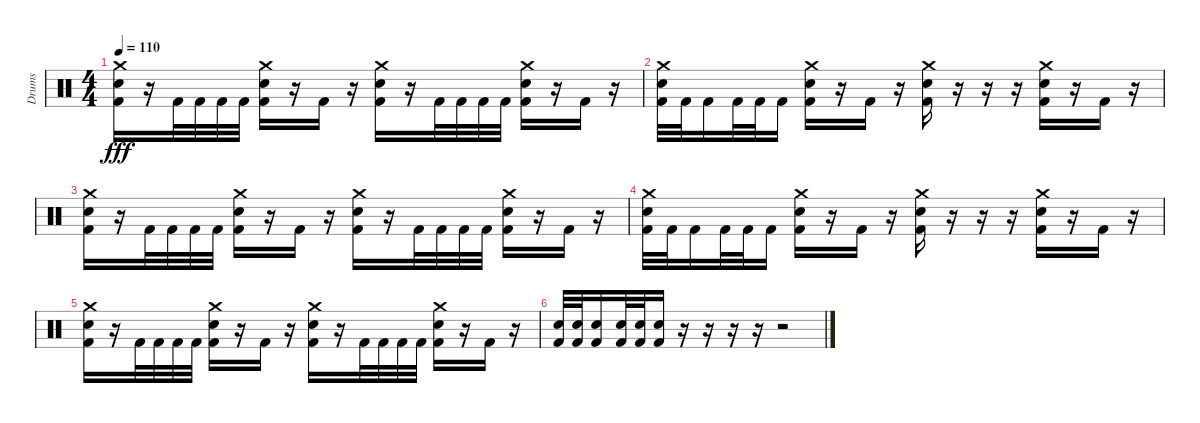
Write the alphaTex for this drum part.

\track ("Drums" "Drums") {instrument percussion}
\staff {score}
\articulation defaults
\ts (4 4)
\tempo 110
\clef neutral
\ks c
("Crash medium (hit)" "Snare (hit) 2" "Kick (hit) 2").16{dy fff} r.16 "Kick (hit) 2".32 "Kick (hit) 2".32 "Kick (hit) 2".32 "Kick (hit) 2".32 ("Crash medium (hit)" "Snare (hit) 2" "Kick (hit) 2").16 r.16 "Kick (hit) 2".16 r.16 ("Crash medium (hit)" "Snare (hit) 2" "Kick (hit) 2").16 r.16 "Kick (hit) 2".32 "Kick (hit) 2".32 "Kick (hit) 2".32 "Kick (hit) 2".32 ("Crash medium (hit)" "Snare (hit) 2" "Kick (hit) 2").16 r.16 "Kick (hit) 2".16 r.16 |
("Crash medium (hit)" "Snare (hit) 2" "Kick (hit) 2").32 "Kick (hit) 2".32 "Kick (hit) 2".16 "Kick (hit) 2".32 "Kick (hit) 2".32 "Kick (hit) 2".16 ("Crash medium (hit)" "Snare (hit) 2" "Kick (hit) 2").16 r.16 "Kick (hit) 2".16 r.16 ("Crash medium (hit)" "Snare (hit) 2" "Kick (hit) 2").16 r.16 r.16 r.16 ("Crash medium (hit)" "Snare (hit) 2" "Kick (hit) 2").16 r.16 "Kick (hit) 2".16 r.16 |
("Crash medium (hit)" "Snare (hit) 2" "Kick (hit) 2").16 r.16 "Kick (hit) 2".32 "Kick (hit) 2".32 "Kick (hit) 2".32 "Kick (hit) 2".32 ("Crash medium (hit)" "Snare (hit) 2" "Kick (hit) 2").16 r.16 "Kick (hit) 2".16 r.16 ("Crash medium (hit)" "Snare (hit) 2" "Kick (hit) 2").16 r.16 "Kick (hit) 2".32 "Kick (hit) 2".32 "Kick (hit) 2".32 "Kick (hit) 2".32 ("Crash medium (hit)" "Snare (hit) 2" "Kick (hit) 2").16 r.16 "Kick (hit) 2".16 r.16 |
("Crash medium (hit)" "Snare (hit) 2" "Kick (hit) 2").32 "Kick (hit) 2".32 "Kick (hit) 2".16 "Kick (hit) 2".32 "Kick (hit) 2".32 "Kick (hit) 2".16 ("Crash medium (hit)" "Snare (hit) 2" "Kick (hit) 2").16 r.16 "Kick (hit) 2".16 r.16 ("Crash medium (hit)" "Snare (hit) 2" "Kick (hit) 2").16 r.16 r.16 r.16 ("Crash medium (hit)" "Snare (hit) 2" "Kick (hit) 2").16 r.16 "Kick (hit) 2".16 r.16 |
("Crash medium (hit)" "Snare (hit) 2" "Kick (hit) 2").16 r.16 "Kick (hit) 2".32 "Kick (hit) 2".32 "Kick (hit) 2".32 "Kick (hit) 2".32 ("Crash medium (hit)" "Snare (hit) 2" "Kick (hit) 2").16 r.16 "Kick (hit) 2".16 r.16 ("Crash medium (hit)" "Snare (hit) 2" "Kick (hit) 2").16 r.16 "Kick (hit) 2".32 "Kick (hit) 2".32 "Kick (hit) 2".32 "Kick (hit) 2".32 ("Crash medium (hit)" "Snare (hit) 2" "Kick (hit) 2").16 r.16 "Kick (hit) 2".16 r.16 |
("Snare (hit) 2" "Kick (hit) 2").32 ("Snare (hit) 2" "Kick (hit) 2").32 ("Snare (hit) 2" "Kick (hit) 2").16 ("Snare (hit) 2" "Kick (hit) 2").32 ("Snare (hit) 2" "Kick (hit) 2").32 ("Snare (hit) 2" "Kick (hit) 2").16 r.16 r.16 r.16 r.16 r.2
